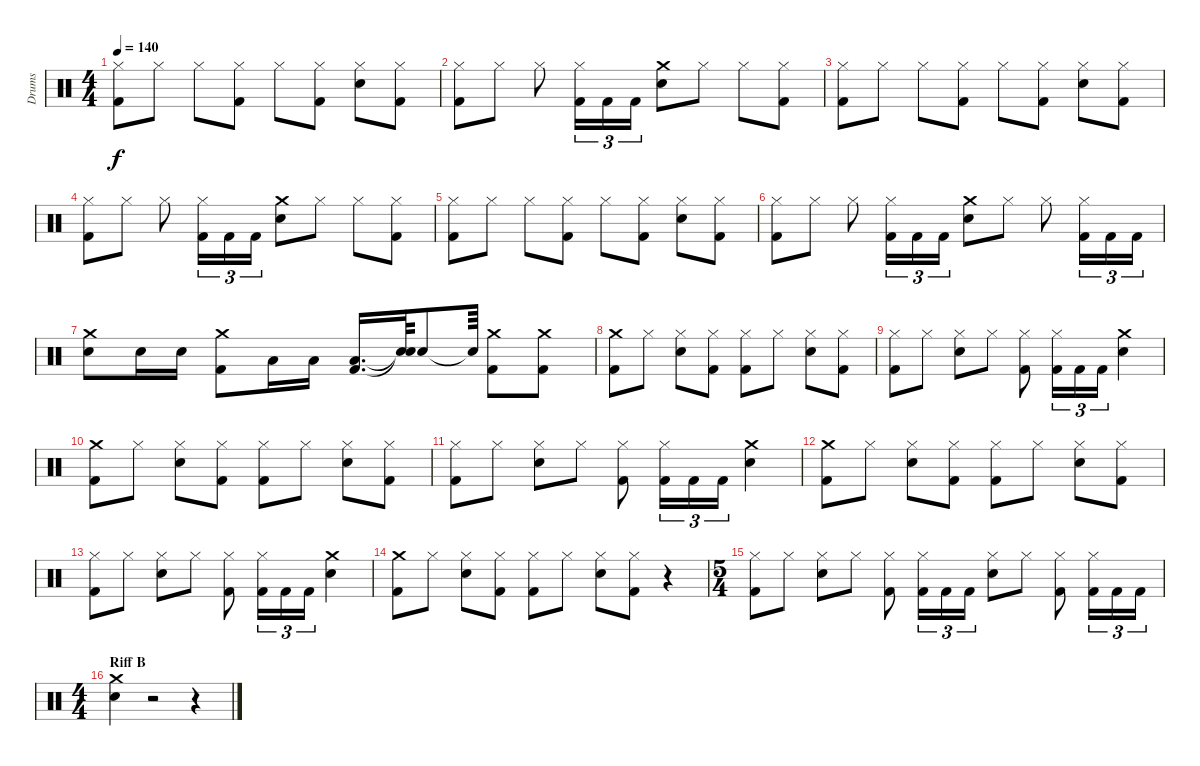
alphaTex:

\track ("Drums" "Drums") {instrument percussion}
\staff {score}
\articulation defaults
\ts (4 4)
\tempo 140
\clef neutral
\ks c
("Kick (hit) 2" "Hi-Hat (closed)").8{dy f} "Hi-Hat (closed)".8 "Hi-Hat (closed)".8 ("Kick (hit) 2" "Hi-Hat (closed)").8 "Hi-Hat (closed)".8 ("Kick (hit) 2" "Hi-Hat (closed)").8 ("Snare (hit) 2" "Hi-Hat (closed)").8 ("Kick (hit) 2" "Hi-Hat (closed)").8 |
("Hi-Hat (closed)" "Kick (hit) 2").8 "Hi-Hat (closed)".8 "Hi-Hat (closed)".8 ("Hi-Hat (closed)" "Kick (hit) 2").16{tu (3 2)} "Kick (hit) 2".16{tu (3 2)} "Kick (hit) 2".16{tu (3 2)} ("Crash medium (hit)" "Snare (hit) 2").8 "Hi-Hat (closed)".8 "Hi-Hat (closed)".8 ("Hi-Hat (closed)" "Kick (hit) 2").8 |
("Hi-Hat (closed)" "Kick (hit) 2").8 "Hi-Hat (closed)".8 "Hi-Hat (closed)".8 ("Kick (hit) 2" "Hi-Hat (closed)").8 "Hi-Hat (closed)".8 ("Kick (hit) 2" "Hi-Hat (closed)").8 ("Hi-Hat (closed)" "Snare (hit) 2").8 ("Kick (hit) 2" "Hi-Hat (closed)").8 |
("Hi-Hat (closed)" "Kick (hit) 2").8 "Hi-Hat (closed)".8 "Hi-Hat (closed)".8 ("Hi-Hat (closed)" "Kick (hit) 2").16{tu (3 2)} "Kick (hit) 2".16{tu (3 2)} "Kick (hit) 2".16{tu (3 2)} ("Crash medium (hit)" "Snare (hit) 2").8 "Hi-Hat (closed)".8 "Hi-Hat (closed)".8 ("Hi-Hat (closed)" "Kick (hit) 2").8 |
("Hi-Hat (closed)" "Kick (hit) 2").8 "Hi-Hat (closed)".8 "Hi-Hat (closed)".8 ("Kick (hit) 2" "Hi-Hat (closed)").8 "Hi-Hat (closed)".8 ("Kick (hit) 2" "Hi-Hat (closed)").8 ("Hi-Hat (closed)" "Snare (hit) 2").8 ("Kick (hit) 2" "Hi-Hat (closed)").8 |
("Hi-Hat (closed)" "Kick (hit) 2").8 "Hi-Hat (closed)".8 "Hi-Hat (closed)".8 ("Hi-Hat (closed)" "Kick (hit) 2").16{tu (3 2)} "Kick (hit) 2".16{tu (3 2)} "Kick (hit) 2".16{tu (3 2)} ("Crash medium (hit)" "Snare (hit) 2").8 "Hi-Hat (closed)".8 "Hi-Hat (closed)".8 ("Hi-Hat (closed)" "Kick (hit) 2").16{tu (3 2)} "Kick (hit) 2".16{tu (3 2)} "Kick (hit) 2".16{tu (3 2)} |
("Snare (hit) 2" "Crash medium (hit)").8 "Snare (hit) 2".16 "Snare (hit) 2".16 ("Kick (hit) 2" "Crash medium (hit)").8 "Low Tom (hit)".16 "Low Tom (hit)".16 ("Kick (hit) 2" "Low Tom (hit)").16{d} ("Snare (hit)"{t} "Snare (hit)"{t}).64 "Snare (hit) 2".8 "Snare (hit)"{t}.64 ("Kick (hit) 2" "Crash medium (hit)").8 ("Kick (hit) 2" "Crash medium (hit)").8 |
("Crash medium (hit)" "Kick (hit) 2").8 "Hi-Hat (closed)".8 ("Snare (hit) 2" "Hi-Hat (closed)").8 ("Hi-Hat (closed)" "Kick (hit) 2").8 ("Hi-Hat (closed)" "Kick (hit) 2").8 "Hi-Hat (closed)".8 ("Snare (hit) 2" "Hi-Hat (closed)").8 ("Hi-Hat (closed)" "Kick (hit) 2").8 |
("Hi-Hat (closed)" "Kick (hit) 2").8 "Hi-Hat (closed)".8 ("Snare (hit) 2" "Hi-Hat (closed)").8 "Hi-Hat (closed)".8 ("Hi-Hat (closed)" "Kick (hit) 2").8 ("Hi-Hat (closed)" "Kick (hit) 2").16{tu (3 2)} "Kick (hit) 2".16{tu (3 2)} "Kick (hit) 2".16{tu (3 2)} ("Crash medium (hit)" "Snare (hit) 2").4 |
("Crash medium (hit)" "Kick (hit) 2").8 "Hi-Hat (closed)".8 ("Snare (hit) 2" "Hi-Hat (closed)").8 ("Hi-Hat (closed)" "Kick (hit) 2").8 ("Hi-Hat (closed)" "Kick (hit) 2").8 "Hi-Hat (closed)".8 ("Snare (hit) 2" "Hi-Hat (closed)").8 ("Hi-Hat (closed)" "Kick (hit) 2").8 |
("Hi-Hat (closed)" "Kick (hit) 2").8 "Hi-Hat (closed)".8 ("Snare (hit) 2" "Hi-Hat (closed)").8 "Hi-Hat (closed)".8 ("Hi-Hat (closed)" "Kick (hit) 2").8 ("Hi-Hat (closed)" "Kick (hit) 2").16{tu (3 2)} "Kick (hit) 2".16{tu (3 2)} "Kick (hit) 2".16{tu (3 2)} ("Crash medium (hit)" "Snare (hit) 2").4 |
("Crash medium (hit)" "Kick (hit) 2").8 "Hi-Hat (closed)".8 ("Snare (hit) 2" "Hi-Hat (closed)").8 ("Hi-Hat (closed)" "Kick (hit) 2").8 ("Hi-Hat (closed)" "Kick (hit) 2").8 "Hi-Hat (closed)".8 ("Snare (hit) 2" "Hi-Hat (closed)").8 ("Hi-Hat (closed)" "Kick (hit) 2").8 |
("Hi-Hat (closed)" "Kick (hit) 2").8 "Hi-Hat (closed)".8 ("Snare (hit) 2" "Hi-Hat (closed)").8 "Hi-Hat (closed)".8 ("Hi-Hat (closed)" "Kick (hit) 2").8 ("Hi-Hat (closed)" "Kick (hit) 2").16{tu (3 2)} "Kick (hit) 2".16{tu (3 2)} "Kick (hit) 2".16{tu (3 2)} ("Crash medium (hit)" "Snare (hit) 2").4 |
("Kick (hit) 2" "Crash medium (hit)").8 "Hi-Hat (closed)".8 ("Snare (hit) 2" "Hi-Hat (closed)").8 ("Kick (hit) 2" "Hi-Hat (closed)").8 ("Kick (hit) 2" "Hi-Hat (closed)").8 "Hi-Hat (closed)".8 ("Snare (hit) 2" "Hi-Hat (closed)").8 ("Kick (hit) 2" "Hi-Hat (closed)").8 r.4 |
\ts (5 4)
("Hi-Hat (closed)" "Kick (hit) 2").8 "Hi-Hat (closed)".8 ("Snare (hit) 2" "Hi-Hat (closed)").8 "Hi-Hat (closed)".8 ("Hi-Hat (closed)" "Kick (hit) 2").8 ("Hi-Hat (closed)" "Kick (hit) 2").16{tu (3 2)} "Kick (hit) 2".16{tu (3 2)} "Kick (hit) 2".16{tu (3 2)} ("Snare (hit) 2" "Hi-Hat (closed)").8 "Hi-Hat (closed)".8 ("Hi-Hat (closed)" "Kick (hit) 2").8 ("Hi-Hat (closed)" "Kick (hit) 2").16{tu (3 2)} "Kick (hit) 2".16{tu (3 2)} "Kick (hit) 2".16{tu (3 2)} |
\ts (4 4)
\section ("" "Riff B")
("Snare (hit) 2" "Crash medium (hit)").4 r.2 r.4
